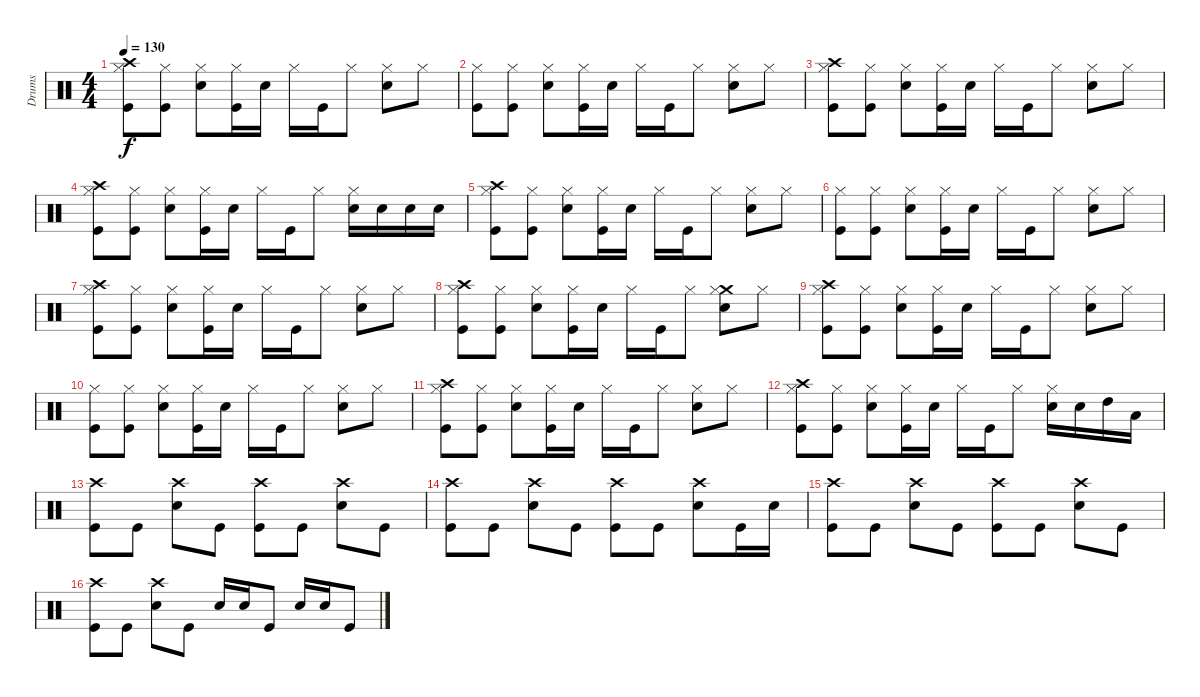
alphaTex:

\track ("Drums" "Drums") {instrument percussion}
\staff {score}
\articulation defaults
\ts (4 4)
\tempo 130
\clef neutral
\ks c
("Crash high (hit)" "Hi-Hat (closed)" "Kick (hit)").8{dy f} ("Hi-Hat (closed)" "Kick (hit)").8 ("Hi-Hat (closed)" "Snare (hit) 2").8 ("Hi-Hat (closed)" "Kick (hit)").16 "Snare (hit) 2".16 "Hi-Hat (closed)".16 "Kick (hit)".16 "Hi-Hat (closed)".8 ("Hi-Hat (closed)" "Snare (hit) 2").8 "Hi-Hat (closed)".8 |
("Hi-Hat (closed)" "Kick (hit)").8 ("Hi-Hat (closed)" "Kick (hit)").8 ("Hi-Hat (closed)" "Snare (hit) 2").8 ("Hi-Hat (closed)" "Kick (hit)").16 "Snare (hit) 2".16 "Hi-Hat (closed)".16 "Kick (hit)".16 "Hi-Hat (closed)".8 ("Hi-Hat (closed)" "Snare (hit) 2").8 "Hi-Hat (closed)".8 |
("Crash high (hit)" "Hi-Hat (closed)" "Kick (hit)").8 ("Hi-Hat (closed)" "Kick (hit)").8 ("Hi-Hat (closed)" "Snare (hit) 2").8 ("Hi-Hat (closed)" "Kick (hit)").16 "Snare (hit) 2".16 "Hi-Hat (closed)".16 "Kick (hit)".16 "Hi-Hat (closed)".8 ("Hi-Hat (closed)" "Snare (hit) 2").8 "Hi-Hat (closed)".8 |
("Crash high (hit)" "Hi-Hat (closed)" "Kick (hit)").8 ("Hi-Hat (closed)" "Kick (hit)").8 ("Hi-Hat (closed)" "Snare (hit) 2").8 ("Hi-Hat (closed)" "Kick (hit)").16 "Snare (hit) 2".16 "Hi-Hat (closed)".16 "Kick (hit)".16 "Hi-Hat (closed)".8 ("Hi-Hat (closed)" "Snare (hit) 2").16 "Snare (hit) 2".16 "Snare (hit) 2".16 "Snare (hit) 2".16 |
("Crash high (hit)" "Hi-Hat (closed)" "Kick (hit)").8 ("Hi-Hat (closed)" "Kick (hit)").8 ("Hi-Hat (closed)" "Snare (hit) 2").8 ("Hi-Hat (closed)" "Kick (hit)").16 "Snare (hit) 2".16 "Hi-Hat (closed)".16 "Kick (hit)".16 "Hi-Hat (closed)".8 ("Hi-Hat (closed)" "Snare (hit) 2").8 "Hi-Hat (closed)".8 |
("Hi-Hat (closed)" "Kick (hit)").8 ("Hi-Hat (closed)" "Kick (hit)").8 ("Hi-Hat (closed)" "Snare (hit) 2").8 ("Hi-Hat (closed)" "Kick (hit)").16 "Snare (hit) 2".16 "Hi-Hat (closed)".16 "Kick (hit)".16 "Hi-Hat (closed)".8 ("Hi-Hat (closed)" "Snare (hit) 2").8 "Hi-Hat (closed)".8 |
("Crash high (hit)" "Hi-Hat (closed)" "Kick (hit)").8 ("Hi-Hat (closed)" "Kick (hit)").8 ("Hi-Hat (closed)" "Snare (hit) 2").8 ("Hi-Hat (closed)" "Kick (hit)").16 "Snare (hit) 2".16 "Hi-Hat (closed)".16 "Kick (hit)".16 "Hi-Hat (closed)".8 ("Hi-Hat (closed)" "Snare (hit) 2").8 "Hi-Hat (closed)".8 |
("Crash high (hit)" "Hi-Hat (closed)" "Kick (hit)").8 ("Hi-Hat (closed)" "Kick (hit)").8 ("Hi-Hat (closed)" "Snare (hit) 2").8 ("Hi-Hat (closed)" "Kick (hit)").16 "Snare (hit) 2".16 "Hi-Hat (closed)".16 "Kick (hit)".16 "Hi-Hat (closed)".8 ("Crash medium (hit)" "Hi-Hat (closed)" "Snare (hit) 2").8 "Hi-Hat (closed)".8 |
("Crash high (hit)" "Hi-Hat (closed)" "Kick (hit)").8 ("Hi-Hat (closed)" "Kick (hit)").8 ("Hi-Hat (closed)" "Snare (hit) 2").8 ("Hi-Hat (closed)" "Kick (hit)").16 "Snare (hit) 2".16 "Hi-Hat (closed)".16 "Kick (hit)".16 "Hi-Hat (closed)".8 ("Hi-Hat (closed)" "Snare (hit) 2").8 "Hi-Hat (closed)".8 |
("Hi-Hat (closed)" "Kick (hit)").8 ("Hi-Hat (closed)" "Kick (hit)").8 ("Hi-Hat (closed)" "Snare (hit) 2").8 ("Hi-Hat (closed)" "Kick (hit)").16 "Snare (hit) 2".16 "Hi-Hat (closed)".16 "Kick (hit)".16 "Hi-Hat (closed)".8 ("Hi-Hat (closed)" "Snare (hit) 2").8 "Hi-Hat (closed)".8 |
("Crash high (hit)" "Hi-Hat (closed)" "Kick (hit)").8 ("Hi-Hat (closed)" "Kick (hit)").8 ("Hi-Hat (closed)" "Snare (hit) 2").8 ("Hi-Hat (closed)" "Kick (hit)").16 "Snare (hit) 2".16 "Hi-Hat (closed)".16 "Kick (hit)".16 "Hi-Hat (closed)".8 ("Hi-Hat (closed)" "Snare (hit) 2").8 "Hi-Hat (closed)".8 |
("Crash high (hit)" "Hi-Hat (closed)" "Kick (hit)").8 ("Hi-Hat (closed)" "Kick (hit)").8 ("Hi-Hat (closed)" "Snare (hit) 2").8 ("Hi-Hat (closed)" "Kick (hit)").16 "Snare (hit) 2".16 "Hi-Hat (closed)".16 "Kick (hit)".16 "Hi-Hat (closed)".8 ("Hi-Hat (closed)" "Snare (hit) 2").16 "Snare (hit) 2".16 "High Tom (hit)".16 "Low Tom (hit)".16 |
("Crash high (hit)" "Kick (hit)").8 "Kick (hit)".8 ("Crash high (hit)" "Snare (hit) 2").8 "Kick (hit)".8 ("Crash high (hit)" "Kick (hit)").8 "Kick (hit)".8 ("Crash high (hit)" "Snare (hit) 2").8 "Kick (hit)".8 |
("Crash high (hit)" "Kick (hit)").8 "Kick (hit)".8 ("Crash high (hit)" "Snare (hit) 2").8 "Kick (hit)".8 ("Crash high (hit)" "Kick (hit)").8 "Kick (hit)".8 ("Crash high (hit)" "Snare (hit) 2").8 "Kick (hit)".16 "Snare (hit) 2".16 |
("Crash high (hit)" "Kick (hit)").8 "Kick (hit)".8 ("Crash high (hit)" "Snare (hit) 2").8 "Kick (hit)".8 ("Crash high (hit)" "Kick (hit)").8 "Kick (hit)".8 ("Crash high (hit)" "Snare (hit) 2").8 "Kick (hit)".8 |
("Crash high (hit)" "Kick (hit)").8 "Kick (hit)".8 ("Crash high (hit)" "Snare (hit) 2").8 "Kick (hit)".8 "Snare (hit) 2".16 "Snare (hit) 2".16 "Kick (hit)".8 "Snare (hit) 2".16 "Snare (hit) 2".16 "Kick (hit)".8
